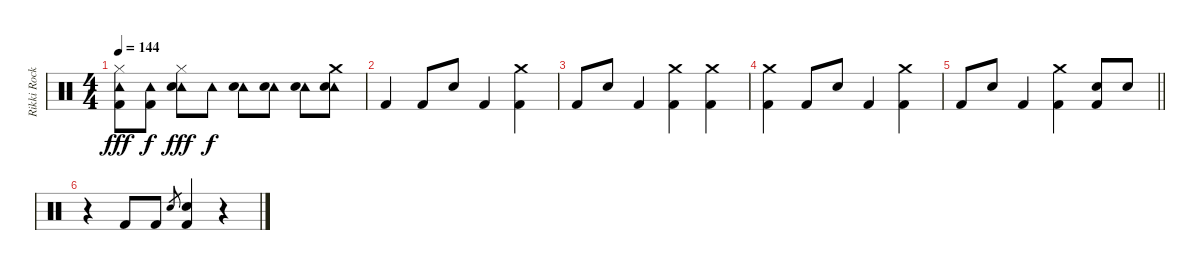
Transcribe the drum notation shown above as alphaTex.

\track ("Rikki Rockett - Drums" "Rikki Rock") {instrument percussion}
\staff {score}
\articulation defaults
\ts (4 4)
\tempo 144
\clef neutral
\ks c
("Hi-Hat (closed)" "Tambourine (hit)" "Kick (hit) 2").8{dy fff} ("Tambourine (hit)" "Kick (hit) 2").8{dy f} ("Hi-Hat (closed)" "Tambourine (hit)" "Electric Snare (hit)").8{dy fff} "Tambourine (hit)".8{dy f} ("Tambourine (hit)" "Electric Snare (hit)").8 ("Tambourine (hit)" "Electric Snare (hit)").8 ("Tambourine (hit)" "Electric Snare (hit)").8 ("Crash medium (hit)" "Tambourine (hit)" "Electric Snare (hit)").8 |
"Kick (hit) 2".4 "Kick (hit) 2".8 "Electric Snare (hit)".8 "Kick (hit) 2".4 ("Crash medium (hit)" "Kick (hit) 2").4 |
"Kick (hit) 2".8 "Electric Snare (hit)".8 "Kick (hit) 2".4 ("Crash medium (hit)" "Kick (hit) 2").4 ("Crash medium (hit)" "Kick (hit) 2").4 |
("Crash medium (hit)" "Kick (hit) 2").4 "Kick (hit) 2".8 "Electric Snare (hit)".8 "Kick (hit) 2".4 ("Crash medium (hit)" "Kick (hit) 2").4 |
\barLineRight lightlight "Kick (hit) 2".8 "Electric Snare (hit)".8 "Kick (hit) 2".4
("Crash medium (hit)" "Kick (hit) 2").4 ("Electric Snare (hit)" "Kick (hit) 2").8 "Electric Snare (hit)".8 |
r.4 "Kick (hit) 2".8 "Kick (hit) 2".8 "Electric Snare (hit)".8{gr} ("Electric Snare (hit)" "Kick (hit) 2").4 r.4
